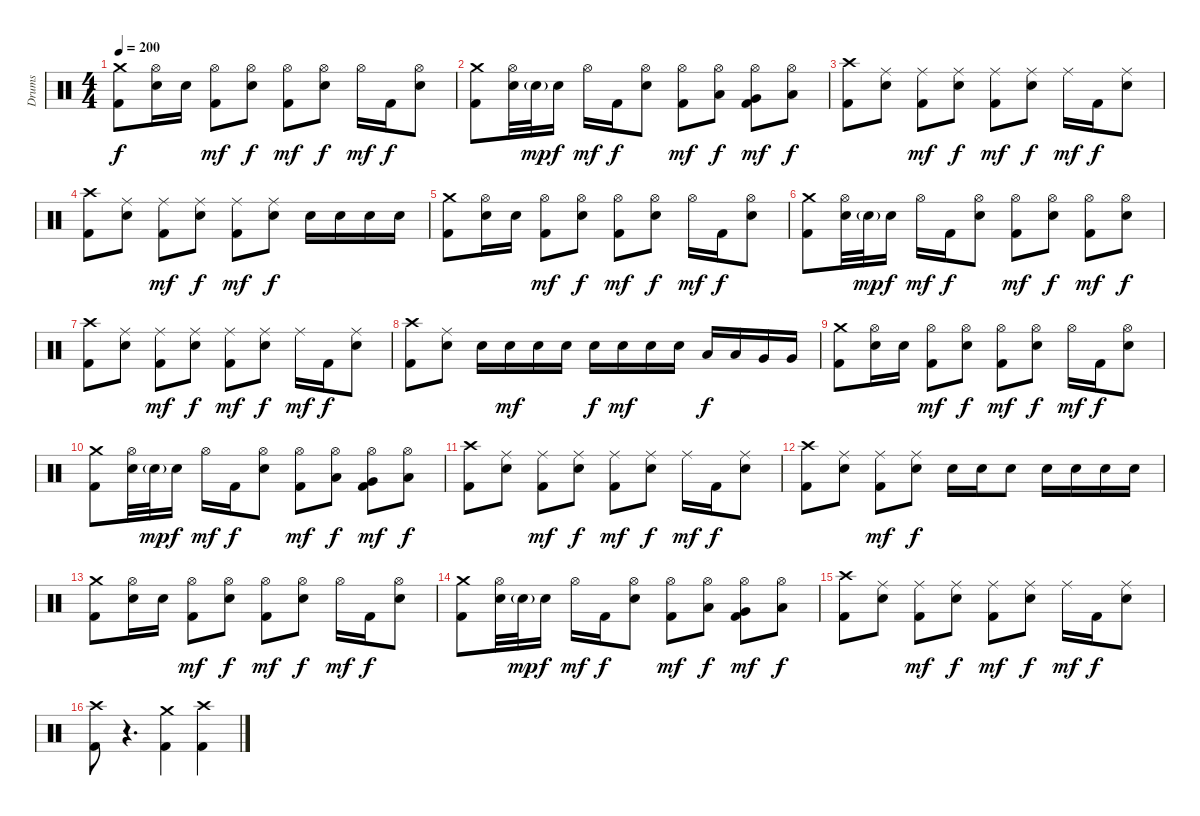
\track ("Drums" "Drums") {instrument percussion}
\staff {score}
\articulation defaults
\ts (4 4)
\tempo 200
\clef neutral
\ks c
("Crash medium (hit)" "Kick (hit) 2").8{dy f} ("Hi-Hat (open)" "Electric Snare (hit)").16 "Electric Snare (hit)".16 ("Hi-Hat (open)" "Kick (hit) 2").8{dy mf} ("Hi-Hat (open)" "Electric Snare (hit)").8{dy f} ("Hi-Hat (open)" "Kick (hit) 2").8{dy mf} ("Hi-Hat (open)" "Electric Snare (hit)").8{dy f} "Hi-Hat (open)".16{dy mf} "Kick (hit) 2".16{dy f} ("Hi-Hat (open)" "Electric Snare (hit)").8 |
("Crash medium (hit)" "Kick (hit) 2").8 ("Hi-Hat (open)" "Electric Snare (hit)").32 "Electric Snare (hit)"{g}.32{dy mp} "Electric Snare (hit)".16{dy f} "Hi-Hat (open)".16{dy mf} "Kick (hit) 2".16{dy f} ("Hi-Hat (open)" "Electric Snare (hit)").8 ("Hi-Hat (open)" "Kick (hit) 2").8{dy mf} ("Hi-Hat (open)" "Low Tom (hit)").8{dy f} ("Hi-Hat (open)" "Very Low Tom (hit)" "Kick (hit) 2").8{dy mf} ("Hi-Hat (open)" "Low Floor Tom (hit)").8{dy f} |
("Crash high (hit)" "Kick (hit) 2").8 ("Ride (middle)" "Electric Snare (hit)").8 ("Ride (middle)" "Kick (hit) 2").8{dy mf} ("Ride (middle)" "Electric Snare (hit)").8{dy f} ("Ride (middle)" "Kick (hit) 2").8{dy mf} ("Ride (middle)" "Electric Snare (hit)").8{dy f} "Ride (middle)".16{dy mf} "Kick (hit) 2".16{dy f} ("Ride (middle)" "Electric Snare (hit)").8 |
("Crash high (hit)" "Kick (hit) 2").8 ("Ride (middle)" "Electric Snare (hit)").8 ("Ride (middle)" "Kick (hit) 2").8{dy mf} ("Ride (middle)" "Electric Snare (hit)").8{dy f} ("Ride (middle)" "Kick (hit) 2").8{dy mf} ("Ride (middle)" "Electric Snare (hit)").8{dy f} "Electric Snare (hit)".16 "Electric Snare (hit)".16 "Electric Snare (hit)".16 "Electric Snare (hit)".16 |
("Crash medium (hit)" "Kick (hit) 2").8 ("Hi-Hat (open)" "Electric Snare (hit)").16 "Electric Snare (hit)".16 ("Hi-Hat (open)" "Kick (hit) 2").8{dy mf} ("Hi-Hat (open)" "Electric Snare (hit)").8{dy f} ("Hi-Hat (open)" "Kick (hit) 2").8{dy mf} ("Hi-Hat (open)" "Electric Snare (hit)").8{dy f} "Hi-Hat (open)".16{dy mf} "Kick (hit) 2".16{dy f} ("Hi-Hat (open)" "Electric Snare (hit)").8 |
("Crash medium (hit)" "Kick (hit) 2").8 ("Hi-Hat (open)" "Electric Snare (hit)").32 "Electric Snare (hit)"{g}.32{dy mp} "Electric Snare (hit)".16{dy f} "Hi-Hat (open)".16{dy mf} "Kick (hit) 2".16{dy f} ("Hi-Hat (open)" "Electric Snare (hit)").8 ("Hi-Hat (open)" "Kick (hit) 2").8{dy mf} ("Hi-Hat (open)" "Electric Snare (hit)").8{dy f} ("Hi-Hat (open)" "Kick (hit) 2").8{dy mf} ("Hi-Hat (open)" "Electric Snare (hit)").8{dy f} |
("Crash high (hit)" "Kick (hit) 2").8 ("Ride (middle)" "Electric Snare (hit)").8 ("Ride (middle)" "Kick (hit) 2").8{dy mf} ("Ride (middle)" "Electric Snare (hit)").8{dy f} ("Ride (middle)" "Kick (hit) 2").8{dy mf} ("Ride (middle)" "Electric Snare (hit)").8{dy f} "Ride (middle)".16{dy mf} "Kick (hit) 2".16{dy f} ("Ride (middle)" "Electric Snare (hit)").8 |
("Crash high (hit)" "Kick (hit) 2").8 ("Ride (middle)" "Electric Snare (hit)").8 "Electric Snare (hit)".16 "Electric Snare (hit)".16{dy mf} "Electric Snare (hit)".16 "Electric Snare (hit)".16 "Electric Snare (hit)".16{dy f} "Electric Snare (hit)".16{dy mf} "Electric Snare (hit)".16 "Electric Snare (hit)".16 "Low Tom (hit)".16{dy f} "Low Tom (hit)".16 "Very Low Tom (hit)".16 "Very Low Tom (hit)".16 |
("Crash medium (hit)" "Kick (hit) 2").8 ("Hi-Hat (open)" "Electric Snare (hit)").16 "Electric Snare (hit)".16 ("Hi-Hat (open)" "Kick (hit) 2").8{dy mf} ("Hi-Hat (open)" "Electric Snare (hit)").8{dy f} ("Hi-Hat (open)" "Kick (hit) 2").8{dy mf} ("Hi-Hat (open)" "Electric Snare (hit)").8{dy f} "Hi-Hat (open)".16{dy mf} "Kick (hit) 2".16{dy f} ("Hi-Hat (open)" "Electric Snare (hit)").8 |
("Crash medium (hit)" "Kick (hit) 2").8 ("Hi-Hat (open)" "Electric Snare (hit)").32 "Electric Snare (hit)"{g}.32{dy mp} "Electric Snare (hit)".16{dy f} "Hi-Hat (open)".16{dy mf} "Kick (hit) 2".16{dy f} ("Hi-Hat (open)" "Electric Snare (hit)").8 ("Hi-Hat (open)" "Kick (hit) 2").8{dy mf} ("Hi-Hat (open)" "Low Tom (hit)").8{dy f} ("Hi-Hat (open)" "Very Low Tom (hit)" "Kick (hit) 2").8{dy mf} ("Hi-Hat (open)" "Low Floor Tom (hit)").8{dy f} |
("Crash high (hit)" "Kick (hit) 2").8 ("Ride (middle)" "Electric Snare (hit)").8 ("Ride (middle)" "Kick (hit) 2").8{dy mf} ("Ride (middle)" "Electric Snare (hit)").8{dy f} ("Ride (middle)" "Kick (hit) 2").8{dy mf} ("Ride (middle)" "Electric Snare (hit)").8{dy f} "Ride (middle)".16{dy mf} "Kick (hit) 2".16{dy f} ("Ride (middle)" "Electric Snare (hit)").8 |
("Crash high (hit)" "Kick (hit) 2").8 ("Ride (middle)" "Electric Snare (hit)").8 ("Ride (middle)" "Kick (hit) 2").8{dy mf} ("Ride (middle)" "Electric Snare (hit)").8{dy f} "Electric Snare (hit)".16 "Electric Snare (hit)".16 "Electric Snare (hit)".8 "Electric Snare (hit)".16 "Electric Snare (hit)".16 "Electric Snare (hit)".16 "Electric Snare (hit)".16 |
("Crash medium (hit)" "Kick (hit) 2").8 ("Hi-Hat (open)" "Electric Snare (hit)").16 "Electric Snare (hit)".16 ("Hi-Hat (open)" "Kick (hit) 2").8{dy mf} ("Hi-Hat (open)" "Electric Snare (hit)").8{dy f} ("Hi-Hat (open)" "Kick (hit) 2").8{dy mf} ("Hi-Hat (open)" "Electric Snare (hit)").8{dy f} "Hi-Hat (open)".16{dy mf} "Kick (hit) 2".16{dy f} ("Hi-Hat (open)" "Electric Snare (hit)").8 |
("Crash medium (hit)" "Kick (hit) 2").8 ("Hi-Hat (open)" "Electric Snare (hit)").32 "Electric Snare (hit)"{g}.32{dy mp} "Electric Snare (hit)".16{dy f} "Hi-Hat (open)".16{dy mf} "Kick (hit) 2".16{dy f} ("Hi-Hat (open)" "Electric Snare (hit)").8 ("Hi-Hat (open)" "Kick (hit) 2").8{dy mf} ("Hi-Hat (open)" "Low Tom (hit)").8{dy f} ("Hi-Hat (open)" "Very Low Tom (hit)" "Kick (hit) 2").8{dy mf} ("Hi-Hat (open)" "Low Floor Tom (hit)").8{dy f} |
("Crash high (hit)" "Kick (hit) 2").8 ("Ride (middle)" "Electric Snare (hit)").8 ("Ride (middle)" "Kick (hit) 2").8{dy mf} ("Ride (middle)" "Electric Snare (hit)").8{dy f} ("Ride (middle)" "Kick (hit) 2").8{dy mf} ("Ride (middle)" "Electric Snare (hit)").8{dy f} "Ride (middle)".16{dy mf} "Kick (hit) 2".16{dy f} ("Ride (middle)" "Electric Snare (hit)").8 |
("Crash high (hit)" "Kick (hit) 2").8 r.4{d} ("Crash medium (hit)" "Kick (hit) 2").4 ("Crash high (hit)" "Kick (hit) 2").4
